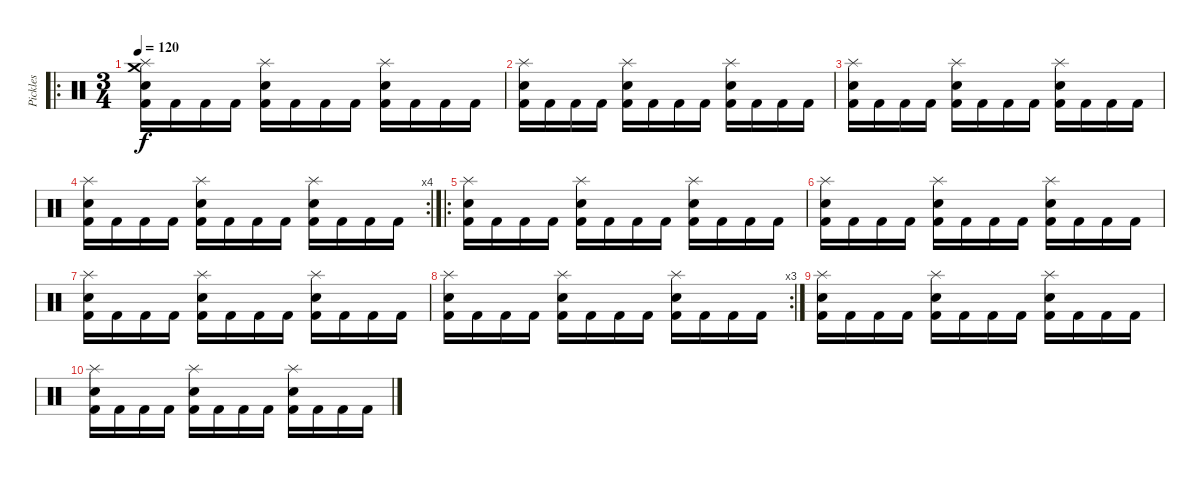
\track ("Pickles" "Pickles") {instrument percussion}
\staff {score}
\articulation defaults
\ro
\ts (3 4)
\tempo 120
\clef neutral
\ks c
("Crash medium (hit)" "Splash (hit)" "Electric Snare (hit)" "Kick (hit) 2").16{dy f} "Kick (hit) 2".16 "Kick (hit) 2".16 "Kick (hit) 2".16 ("Splash (hit)" "Electric Snare (hit)" "Kick (hit) 2").16 "Kick (hit) 2".16 "Kick (hit) 2".16 "Kick (hit) 2".16 ("Splash (hit)" "Electric Snare (hit)" "Kick (hit) 2").16 "Kick (hit) 2".16 "Kick (hit) 2".16 "Kick (hit) 2".16 |
("Splash (hit)" "Electric Snare (hit)" "Kick (hit) 2").16 "Kick (hit) 2".16 "Kick (hit) 2".16 "Kick (hit) 2".16 ("Splash (hit)" "Electric Snare (hit)" "Kick (hit) 2").16 "Kick (hit) 2".16 "Kick (hit) 2".16 "Kick (hit) 2".16 ("Splash (hit)" "Electric Snare (hit)" "Kick (hit) 2").16 "Kick (hit) 2".16 "Kick (hit) 2".16 "Kick (hit) 2".16 |
("Splash (hit)" "Electric Snare (hit)" "Kick (hit) 2").16 "Kick (hit) 2".16 "Kick (hit) 2".16 "Kick (hit) 2".16 ("Splash (hit)" "Electric Snare (hit)" "Kick (hit) 2").16 "Kick (hit) 2".16 "Kick (hit) 2".16 "Kick (hit) 2".16 ("Splash (hit)" "Electric Snare (hit)" "Kick (hit) 2").16 "Kick (hit) 2".16 "Kick (hit) 2".16 "Kick (hit) 2".16 |
\rc 4
("Splash (hit)" "Electric Snare (hit)" "Kick (hit) 2").16 "Kick (hit) 2".16 "Kick (hit) 2".16 "Kick (hit) 2".16 ("Splash (hit)" "Electric Snare (hit)" "Kick (hit) 2").16 "Kick (hit) 2".16 "Kick (hit) 2".16 "Kick (hit) 2".16 ("Splash (hit)" "Electric Snare (hit)" "Kick (hit) 2").16 "Kick (hit) 2".16 "Kick (hit) 2".16 "Kick (hit) 2".16 |
\ro
("Splash (hit)" "Electric Snare (hit)" "Kick (hit) 2").16 "Kick (hit) 2".16 "Kick (hit) 2".16 "Kick (hit) 2".16 ("Splash (hit)" "Electric Snare (hit)" "Kick (hit) 2").16 "Kick (hit) 2".16 "Kick (hit) 2".16 "Kick (hit) 2".16 ("Splash (hit)" "Electric Snare (hit)" "Kick (hit) 2").16 "Kick (hit) 2".16 "Kick (hit) 2".16 "Kick (hit) 2".16 |
("Splash (hit)" "Electric Snare (hit)" "Kick (hit) 2").16 "Kick (hit) 2".16 "Kick (hit) 2".16 "Kick (hit) 2".16 ("Splash (hit)" "Electric Snare (hit)" "Kick (hit) 2").16 "Kick (hit) 2".16 "Kick (hit) 2".16 "Kick (hit) 2".16 ("Splash (hit)" "Electric Snare (hit)" "Kick (hit) 2").16 "Kick (hit) 2".16 "Kick (hit) 2".16 "Kick (hit) 2".16 |
("Splash (hit)" "Electric Snare (hit)" "Kick (hit) 2").16 "Kick (hit) 2".16 "Kick (hit) 2".16 "Kick (hit) 2".16 ("Splash (hit)" "Electric Snare (hit)" "Kick (hit) 2").16 "Kick (hit) 2".16 "Kick (hit) 2".16 "Kick (hit) 2".16 ("Splash (hit)" "Electric Snare (hit)" "Kick (hit) 2").16 "Kick (hit) 2".16 "Kick (hit) 2".16 "Kick (hit) 2".16 |
\rc 3
("Splash (hit)" "Electric Snare (hit)" "Kick (hit) 2").16 "Kick (hit) 2".16 "Kick (hit) 2".16 "Kick (hit) 2".16 ("Splash (hit)" "Electric Snare (hit)" "Kick (hit) 2").16 "Kick (hit) 2".16 "Kick (hit) 2".16 "Kick (hit) 2".16 ("Splash (hit)" "Electric Snare (hit)" "Kick (hit) 2").16 "Kick (hit) 2".16 "Kick (hit) 2".16 "Kick (hit) 2".16 |
("Splash (hit)" "Electric Snare (hit)" "Kick (hit) 2").16 "Kick (hit) 2".16 "Kick (hit) 2".16 "Kick (hit) 2".16 ("Splash (hit)" "Electric Snare (hit)" "Kick (hit) 2").16 "Kick (hit) 2".16 "Kick (hit) 2".16 "Kick (hit) 2".16 ("Splash (hit)" "Electric Snare (hit)" "Kick (hit) 2").16 "Kick (hit) 2".16 "Kick (hit) 2".16 "Kick (hit) 2".16 |
("Splash (hit)" "Electric Snare (hit)" "Kick (hit) 2").16 "Kick (hit) 2".16 "Kick (hit) 2".16 "Kick (hit) 2".16 ("Splash (hit)" "Electric Snare (hit)" "Kick (hit) 2").16 "Kick (hit) 2".16 "Kick (hit) 2".16 "Kick (hit) 2".16 ("Splash (hit)" "Electric Snare (hit)" "Kick (hit) 2").16 "Kick (hit) 2".16 "Kick (hit) 2".16 "Kick (hit) 2".16
